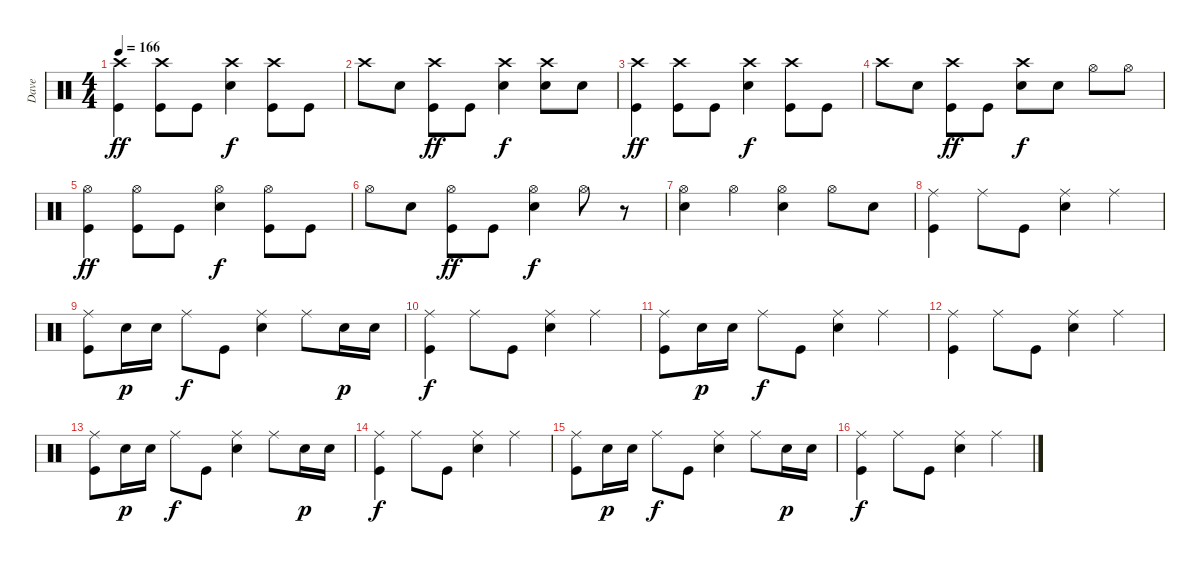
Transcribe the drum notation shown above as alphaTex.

\track ("Dave" "Dave") {instrument percussion}
\staff {score}
\articulation defaults
\ts (4 4)
\tempo 166
\clef neutral
\ks c
("Crash high (hit)" "Kick (hit)").4{dy ff} ("Crash high (hit)" "Kick (hit)").8 "Kick (hit)".8 ("Crash high (hit)" "Snare (hit) 2").4{dy f} ("Crash high (hit)" "Kick (hit)").8 "Kick (hit)".8 |
"Crash high (hit)".8 "Snare (hit) 2".8 ("Crash high (hit)" "Kick (hit)").8{dy ff} "Kick (hit)".8 ("Crash high (hit)" "Snare (hit) 2").4{dy f} ("Crash high (hit)" "Snare (hit) 2").8 "Snare (hit) 2".8 |
("Crash high (hit)" "Kick (hit)").4{dy ff} ("Crash high (hit)" "Kick (hit)").8 "Kick (hit)".8 ("Crash high (hit)" "Snare (hit) 2").4{dy f} ("Crash high (hit)" "Kick (hit)").8 "Kick (hit)".8 |
"Crash high (hit)".8 "Snare (hit) 2".8 ("Crash high (hit)" "Kick (hit)").8{dy ff} "Kick (hit)".8 ("Crash high (hit)" "Snare (hit) 2").8{dy f} "Snare (hit) 2".8 "Hi-Hat (open)".8 "Hi-Hat (open)".8 |
("Hi-Hat (open)" "Kick (hit)").4{dy ff} ("Hi-Hat (open)" "Kick (hit)").8 "Kick (hit)".8 ("Hi-Hat (open)" "Snare (hit) 2").4{dy f} ("Hi-Hat (open)" "Kick (hit)").8 "Kick (hit)".8 |
"Hi-Hat (open)".8 "Snare (hit) 2".8 ("Hi-Hat (open)" "Kick (hit)").8{dy ff} "Kick (hit)".8 ("Hi-Hat (open)" "Snare (hit) 2").4{dy f} "Hi-Hat (open)".8 r.8 |
("Hi-Hat (open)" "Snare (hit) 2").4 "Hi-Hat (open)".4 ("Hi-Hat (open)" "Snare (hit) 2").4 "Hi-Hat (open)".8 "Snare (hit) 2".8 |
("Ride (middle)" "Kick (hit)").4 "Ride (middle)".8 "Kick (hit)".8 ("Ride (middle)" "Snare (hit) 2").4 "Ride (middle)".4 |
("Ride (middle)" "Kick (hit)").8 "Snare (hit) 2".16{dy p} "Snare (hit) 2".16 "Ride (middle)".8{dy f} "Kick (hit)".8 ("Ride (middle)" "Snare (hit) 2").4 "Ride (middle)".8 "Snare (hit) 2".16{dy p} "Snare (hit) 2".16 |
("Ride (middle)" "Kick (hit)").4{dy f} "Ride (middle)".8 "Kick (hit)".8 ("Ride (middle)" "Snare (hit) 2").4 "Ride (middle)".4 |
("Ride (middle)" "Kick (hit)").8 "Snare (hit) 2".16{dy p} "Snare (hit) 2".16 "Ride (middle)".8{dy f} "Kick (hit)".8 ("Ride (middle)" "Snare (hit) 2").4 "Ride (middle)".4 |
("Ride (middle)" "Kick (hit)").4 "Ride (middle)".8 "Kick (hit)".8 ("Ride (middle)" "Snare (hit) 2").4 "Ride (middle)".4 |
("Ride (middle)" "Kick (hit)").8 "Snare (hit) 2".16{dy p} "Snare (hit) 2".16 "Ride (middle)".8{dy f} "Kick (hit)".8 ("Ride (middle)" "Snare (hit) 2").4 "Ride (middle)".8 "Snare (hit) 2".16{dy p} "Snare (hit) 2".16 |
("Ride (middle)" "Kick (hit)").4{dy f} "Ride (middle)".8 "Kick (hit)".8 ("Ride (middle)" "Snare (hit) 2").4 "Ride (middle)".4 |
("Ride (middle)" "Kick (hit)").8 "Snare (hit) 2".16{dy p} "Snare (hit) 2".16 "Ride (middle)".8{dy f} "Kick (hit)".8 ("Ride (middle)" "Snare (hit) 2").4 "Ride (middle)".8 "Snare (hit) 2".16{dy p} "Snare (hit) 2".16 |
("Ride (middle)" "Kick (hit)").4{dy f} "Ride (middle)".8 "Kick (hit)".8 ("Ride (middle)" "Snare (hit) 2").4 "Ride (middle)".4
